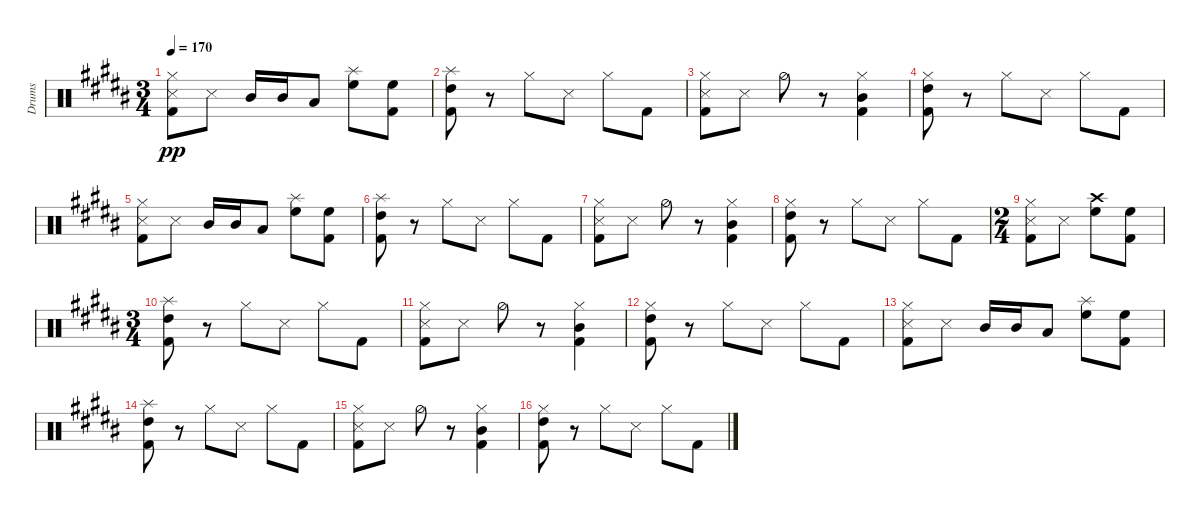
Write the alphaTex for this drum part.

\defaultSystemsLayout 4
\bracketExtendMode groupsimilarinstruments
\otherSystemsTrackNameOrientation horizontal
\track ("Drumkit" "Drums") {instrument percussion}
\staff {score}
\articulation defaults
\ts (3 4)
\tempo 170
\clef neutral
\ks b
("Hi-Hat (closed)"{acc bb} "Snare (side stick) 3"{acc bb} "Kick (hit) 2"{acc bb}).8{dy pp beam Down} "Snare (side stick) 3"{acc bb}.8{beam Down} "Mid Tom (hit)"{acc bb}.16{beam Up} "Mid Tom (hit)"{acc bb}.16{beam Up} "Low Tom (hit)"{acc bb}.8{beam Up} ("High Floor Tom (hit)"{acc bb} "Splash (hit)"{acc bb}).8{beam Down} ("High Floor Tom (hit)"{acc bb} "Kick (hit) 2"{acc bb}).8{beam Down} |
("High Tom (hit)"{acc bb} "Kick (hit) 2"{acc bb} "Splash (hit)"{acc bb}).8{beam Down} r.8{beam Down} "Hi-Hat (closed)"{acc bb}.8{beam Down} "Snare (side stick) 3"{acc bb}.8{beam Down} "Hi-Hat (closed)"{acc bb}.8{beam Down} "Kick (hit) 2"{acc bb}.8{beam Down} |
("Hi-Hat (closed)"{acc bb} "Snare (side stick) 3"{acc bb} "Kick (hit) 2"{acc bb}).8{beam Down} "Snare (side stick) 3"{acc bb}.8{beam Down} "Hi-Hat (half)"{acc bb}.8{beam Down} r.8{beam Down} ("Hi-Hat (closed)"{acc bb} "Kick (hit) 2"{acc bb} "Mid Tom (hit)"{acc bb}).4{beam Down} |
("High Tom (hit)"{acc bb} "Kick (hit) 2"{acc bb} "Hi-Hat (closed)"{acc bb}).8{beam Down} r.8{beam Down} "Hi-Hat (closed)"{acc bb}.8{beam Down} "Snare (side stick) 3"{acc bb}.8{beam Down} "Hi-Hat (closed)"{acc bb}.8{beam Down} "Kick (hit) 2"{acc bb}.8{beam Down} |
("Hi-Hat (closed)"{acc bb} "Snare (side stick) 3"{acc bb} "Kick (hit) 2"{acc bb}).8{beam Down} "Snare (side stick) 3"{acc bb}.8{beam Down} "Mid Tom (hit)"{acc bb}.16{beam Up} "Mid Tom (hit)"{acc bb}.16{beam Up} "Low Tom (hit)"{acc bb}.8{beam Up} ("High Floor Tom (hit)"{acc bb} "Splash (hit)"{acc bb}).8{beam Down} ("High Floor Tom (hit)"{acc bb} "Kick (hit) 2"{acc bb}).8{beam Down} |
("High Tom (hit)"{acc bb} "Kick (hit) 2"{acc bb} "Splash (hit)"{acc bb}).8{beam Down} r.8{beam Down} "Hi-Hat (closed)"{acc bb}.8{beam Down} "Snare (side stick) 3"{acc bb}.8{beam Down} "Hi-Hat (closed)"{acc bb}.8{beam Down} "Kick (hit) 2"{acc bb}.8{beam Down} |
("Hi-Hat (closed)"{acc bb} "Snare (side stick) 3"{acc bb} "Kick (hit) 2"{acc bb}).8{beam Down} "Snare (side stick) 3"{acc bb}.8{beam Down} "Hi-Hat (half)"{acc bb}.8{beam Down} r.8{beam Down} ("Hi-Hat (closed)"{acc bb} "Kick (hit) 2"{acc bb} "Mid Tom (hit)"{acc bb}).4{beam Down} |
("High Tom (hit)"{acc bb} "Kick (hit) 2"{acc bb} "Hi-Hat (closed)"{acc bb}).8{beam Down} r.8{beam Down} "Hi-Hat (closed)"{acc bb}.8{beam Down} "Snare (side stick) 3"{acc bb}.8{beam Down} "Hi-Hat (closed)"{acc bb}.8{beam Down} "Kick (hit) 2"{acc bb}.8{beam Down} |
\ts (2 4)
("Hi-Hat (closed)"{acc bb} "Snare (side stick) 3"{acc bb} "Kick (hit) 2"{acc bb}).8{beam Down} "Snare (side stick) 3"{acc bb}.8{beam Down} ("High Floor Tom (hit)"{acc bb} "Crash high (hit)"{acc bb}).8{beam Down} ("High Floor Tom (hit)"{acc bb} "Kick (hit) 2"{acc bb}).8{beam Down} |
\ts (3 4)
("High Tom (hit)"{acc bb} "Kick (hit) 2"{acc bb} "Splash (hit)"{acc bb}).8{beam Down} r.8{beam Down} "Hi-Hat (closed)"{acc bb}.8{beam Down} "Snare (side stick) 3"{acc bb}.8{beam Down} "Hi-Hat (closed)"{acc bb}.8{beam Down} "Kick (hit) 2"{acc bb}.8{beam Down} |
("Hi-Hat (closed)"{acc bb} "Snare (side stick) 3"{acc bb} "Kick (hit) 2"{acc bb}).8{beam Down} "Snare (side stick) 3"{acc bb}.8{beam Down} "Hi-Hat (half)"{acc bb}.8{beam Down} r.8{beam Down} ("Hi-Hat (closed)"{acc bb} "Kick (hit) 2"{acc bb} "Mid Tom (hit)"{acc bb}).4{beam Down} |
("High Tom (hit)"{acc bb} "Kick (hit) 2"{acc bb} "Hi-Hat (closed)"{acc bb}).8{beam Down} r.8{beam Down} "Hi-Hat (closed)"{acc bb}.8{beam Down} "Snare (side stick) 3"{acc bb}.8{beam Down} "Hi-Hat (closed)"{acc bb}.8{beam Down} "Kick (hit) 2"{acc bb}.8{beam Down} |
("Hi-Hat (closed)"{acc bb} "Snare (side stick) 3"{acc bb} "Kick (hit) 2"{acc bb}).8{beam Down} "Snare (side stick) 3"{acc bb}.8{beam Down} "Mid Tom (hit)"{acc bb}.16{beam Up} "Mid Tom (hit)"{acc bb}.16{beam Up} "Low Tom (hit)"{acc bb}.8{beam Up} ("High Floor Tom (hit)"{acc bb} "Splash (hit)"{acc bb}).8{beam Down} ("High Floor Tom (hit)"{acc bb} "Kick (hit) 2"{acc bb}).8{beam Down} |
("High Tom (hit)"{acc bb} "Kick (hit) 2"{acc bb} "Splash (hit)"{acc bb}).8{beam Down} r.8{beam Down} "Hi-Hat (closed)"{acc bb}.8{beam Down} "Snare (side stick) 3"{acc bb}.8{beam Down} "Hi-Hat (closed)"{acc bb}.8{beam Down} "Kick (hit) 2"{acc bb}.8{beam Down} |
("Hi-Hat (closed)"{acc bb} "Snare (side stick) 3"{acc bb} "Kick (hit) 2"{acc bb}).8{beam Down} "Snare (side stick) 3"{acc bb}.8{beam Down} "Hi-Hat (half)"{acc bb}.8{beam Down} r.8{beam Down} ("Hi-Hat (closed)"{acc bb} "Kick (hit) 2"{acc bb} "Mid Tom (hit)"{acc bb}).4{beam Down} |
("High Tom (hit)"{acc bb} "Kick (hit) 2"{acc bb} "Hi-Hat (closed)"{acc bb}).8{beam Down} r.8{beam Down} "Hi-Hat (closed)"{acc bb}.8{beam Down} "Snare (side stick) 3"{acc bb}.8{beam Down} "Hi-Hat (closed)"{acc bb}.8{beam Down} "Kick (hit) 2"{acc bb}.8{beam Down}
